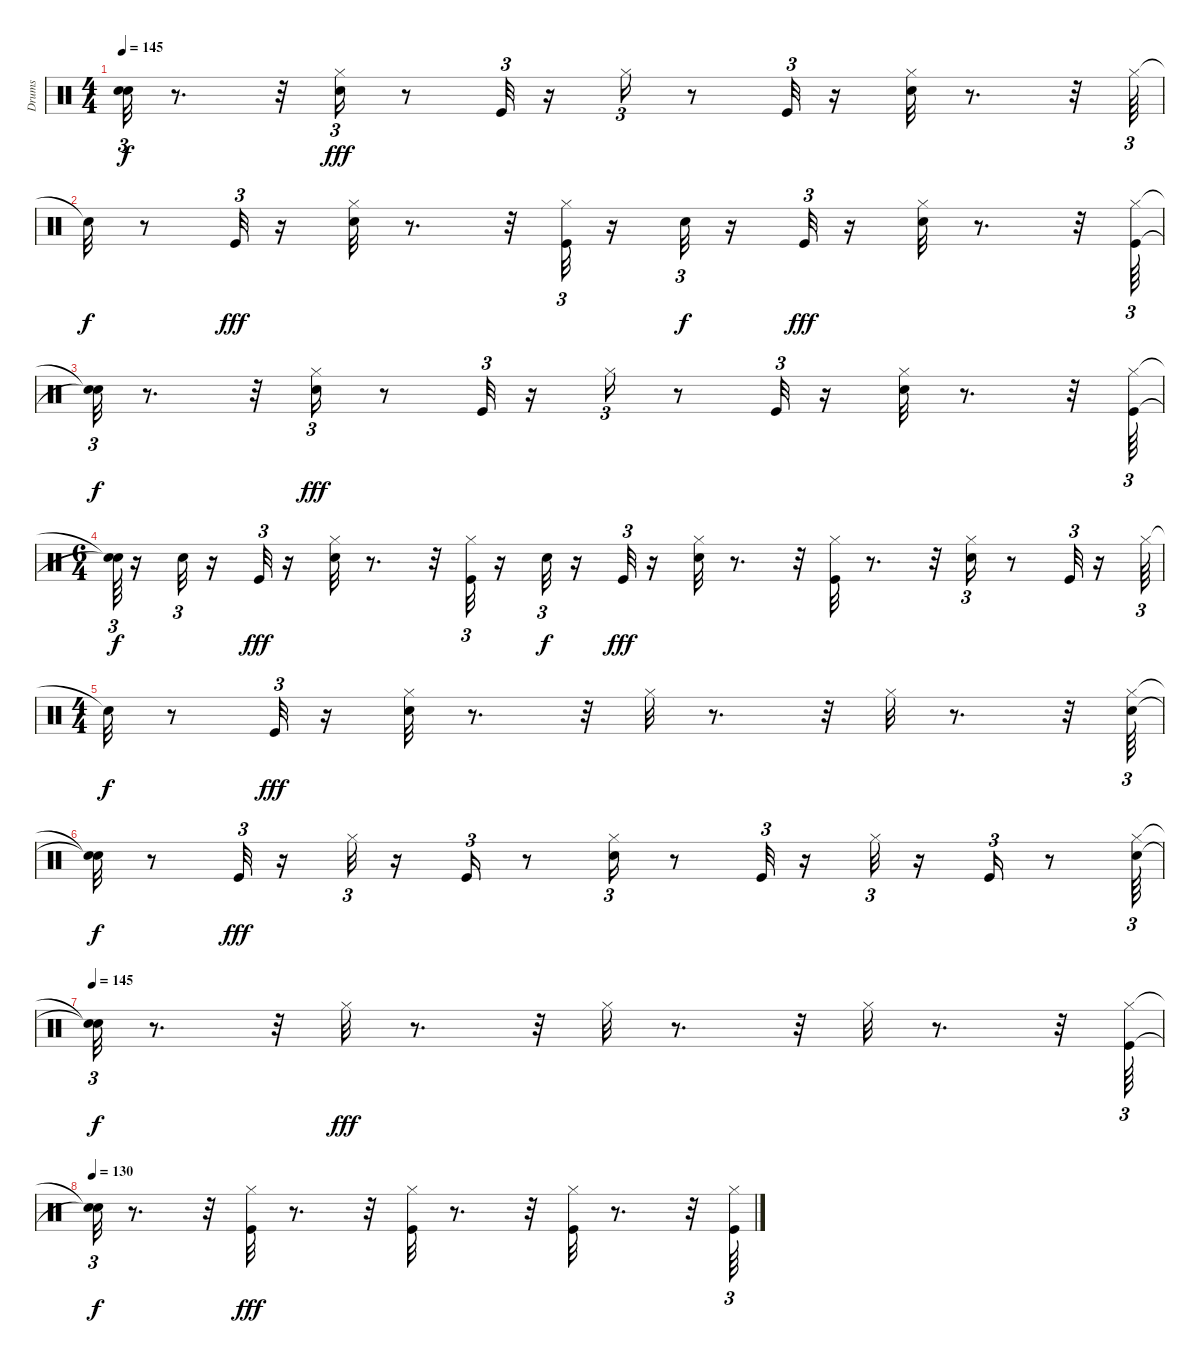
\track ("Drums" "Drums") {instrument percussion}
\staff {score}
\articulation defaults
\ts (4 4)
\tempo 145
\clef neutral
\ks c
("Snare (hit)"{t} "Snare (hit)"{t}).32{tu (3 2) dy f} r.8{d} r.32 ("Electric Snare (hit)" "Hi-Hat (closed)").16{tu (3 2) dy fff} r.8 "Kick (hit)".32{tu (3 2)} r.16 "Hi-Hat (closed)".16{tu (3 2)} r.8 "Kick (hit)".32{tu (3 2)} r.16 ("Electric Snare (hit)" "Hi-Hat (closed)").32 r.8{d} r.32 "Hi-Hat (closed)".64{tu (3 2)} |
"Snare (hit)"{t}.32{dy f} r.8 "Kick (hit)".32{tu (3 2) dy fff} r.16 ("Electric Snare (hit)" "Hi-Hat (closed)").32 r.8{d} r.32 ("Kick (hit)" "Hi-Hat (closed)").32{tu (3 2)} r.16 "Electric Snare (hit)".32{tu (3 2) dy f} r.16 "Kick (hit)".32{tu (3 2) dy fff} r.16 ("Electric Snare (hit)" "Hi-Hat (closed)").32 r.8{d} r.32 ("Kick (hit)" "Hi-Hat (closed)").64{tu (3 2)} |
("Snare (hit)"{t} "Snare (hit)"{t}).32{tu (3 2) dy f} r.8{d} r.32 ("Electric Snare (hit)" "Hi-Hat (closed)").16{tu (3 2) dy fff} r.8 "Kick (hit)".32{tu (3 2)} r.16 "Hi-Hat (closed)".16{tu (3 2)} r.8 "Kick (hit)".32{tu (3 2)} r.16 ("Electric Snare (hit)" "Hi-Hat (closed)").32 r.8{d} r.32 ("Kick (hit)" "Hi-Hat (closed)").64{tu (3 2)} |
\ts (6 4)
("Snare (hit)"{t} "Snare (hit)"{t}).64{tu (3 2) dy f} r.16 "Electric Snare (hit)".32{tu (3 2)} r.16 "Kick (hit)".32{tu (3 2) dy fff} r.16 ("Electric Snare (hit)" "Hi-Hat (closed)").32 r.8{d} r.32 ("Kick (hit)" "Hi-Hat (closed)").32{tu (3 2)} r.16 "Electric Snare (hit)".32{tu (3 2) dy f} r.16 "Kick (hit)".32{tu (3 2) dy fff} r.16 ("Electric Snare (hit)" "Hi-Hat (closed)").32 r.8{d} r.32 ("Kick (hit)" "Hi-Hat (closed)").32 r.8{d} r.32 ("Electric Snare (hit)" "Hi-Hat (closed)").16{tu (3 2)} r.8 "Kick (hit)".32{tu (3 2)} r.16 "Hi-Hat (closed)".64{tu (3 2)} |
\ts (4 4)
"Snare (hit)"{t}.32{dy f} r.8 "Kick (hit)".32{tu (3 2) dy fff} r.16 ("Electric Snare (hit)" "Hi-Hat (closed)").32 r.8{d} r.32 "Hi-Hat (closed)".32 r.8{d} r.32 "Hi-Hat (closed)".32 r.8{d} r.32 ("Electric Snare (hit)" "Hi-Hat (closed)").64{tu (3 2)} |
("Snare (hit)"{t} "Snare (hit)"{t}).32{dy f} r.8 "Kick (hit)".32{tu (3 2) dy fff} r.16 "Hi-Hat (closed)".32{tu (3 2)} r.16 "Kick (hit)".16{tu (3 2)} r.8 ("Electric Snare (hit)" "Hi-Hat (closed)").16{tu (3 2)} r.8 "Kick (hit)".32{tu (3 2)} r.16 "Hi-Hat (closed)".32{tu (3 2)} r.16 "Kick (hit)".16{tu (3 2)} r.8 ("Electric Snare (hit)" "Hi-Hat (closed)").64{tu (3 2)} |
\tempo 145
("Snare (hit)"{t} "Snare (hit)"{t}).32{tu (3 2) dy f} r.8{d} r.32 "Hi-Hat (closed)".32{dy fff} r.8{d} r.32 "Hi-Hat (closed)".32 r.8{d} r.32 "Hi-Hat (closed)".32 r.8{d} r.32 ("Kick (hit)" "Hi-Hat (closed)").64{tu (3 2)} |
\tempo 130
("Snare (hit)"{t} "Snare (hit)"{t}).32{tu (3 2) dy f} r.8{d} r.32 ("Kick (hit)" "Hi-Hat (closed)").32{dy fff} r.8{d} r.32 ("Kick (hit)" "Hi-Hat (closed)").32 r.8{d} r.32 ("Kick (hit)" "Hi-Hat (closed)").32 r.8{d} r.32 ("Kick (hit)" "Hi-Hat (closed)").64{tu (3 2)}
